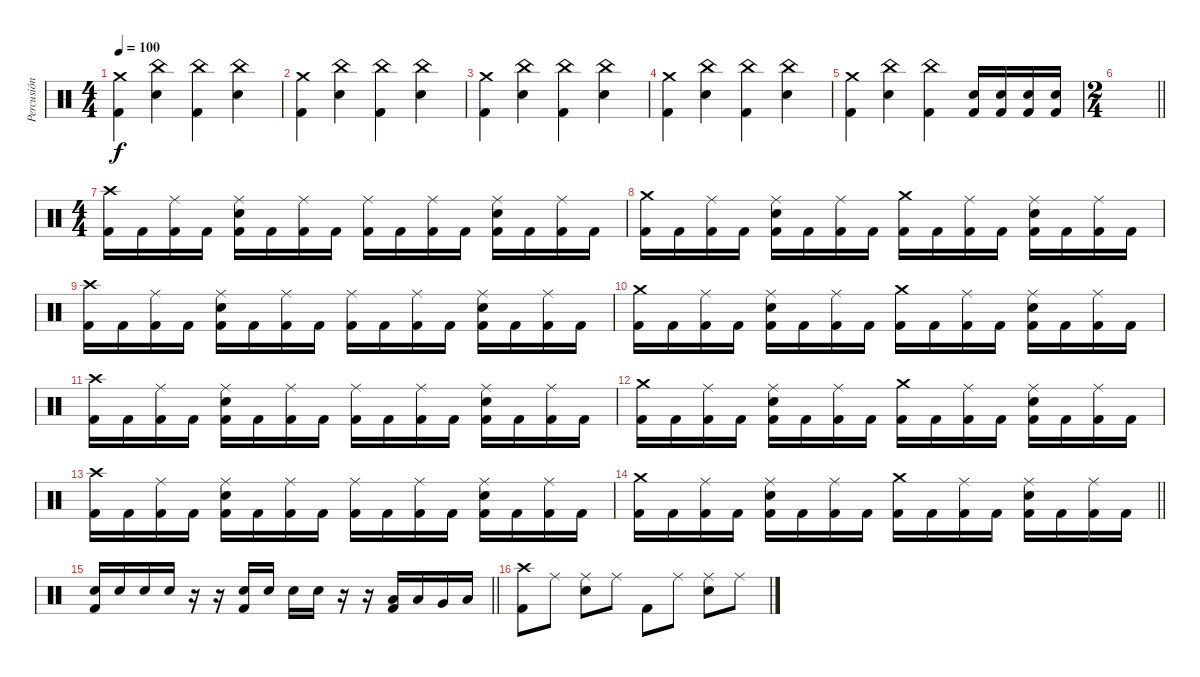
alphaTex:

\track ("Percusión" "Percusión") {instrument percussion}
\staff {score}
\articulation defaults
\ts (4 4)
\tempo 100
\clef neutral
\ks c
("Crash medium (hit)" "Kick (hit) 2").4{dy f} ("China (hit)" "Snare (hit) 2").4 ("China (hit)" "Kick (hit) 2").4 ("China (hit)" "Snare (hit) 2").4 |
("Crash medium (hit)" "Kick (hit) 2").4 ("China (hit)" "Snare (hit) 2").4 ("China (hit)" "Kick (hit) 2").4 ("China (hit)" "Snare (hit) 2").4 |
("Crash medium (hit)" "Kick (hit) 2").4 ("China (hit)" "Snare (hit) 2").4 ("China (hit)" "Kick (hit) 2").4 ("China (hit)" "Snare (hit) 2").4 |
("Crash medium (hit)" "Kick (hit) 2").4 ("China (hit)" "Snare (hit) 2").4 ("China (hit)" "Kick (hit) 2").4 ("China (hit)" "Snare (hit) 2").4 |
("Crash medium (hit)" "Kick (hit) 2").4 ("China (hit)" "Snare (hit) 2").4 ("China (hit)" "Kick (hit) 2").4 ("Snare (hit) 2" "Kick (hit) 2").16 ("Snare (hit) 2" "Kick (hit) 2").16 ("Snare (hit) 2" "Kick (hit) 2").16 ("Snare (hit) 2" "Kick (hit) 2").16 |
\ts (2 4)
\barLineRight lightlight
|
\ts (4 4)
("Crash high (hit)" "Kick (hit) 2").16 "Kick (hit) 2".16 ("Ride (middle)" "Kick (hit) 2").16 "Kick (hit) 2".16 ("Ride (middle)" "Snare (hit) 2" "Kick (hit) 2").16 "Kick (hit) 2".16 ("Ride (middle)" "Kick (hit) 2").16 "Kick (hit) 2".16 ("Ride (middle)" "Kick (hit) 2").16 "Kick (hit) 2".16 ("Ride (middle)" "Kick (hit) 2").16 "Kick (hit) 2".16 ("Ride (middle)" "Snare (hit) 2" "Kick (hit) 2").16 "Kick (hit) 2".16 ("Ride (middle)" "Kick (hit) 2").16 "Kick (hit) 2".16 |
("Crash medium (hit)" "Kick (hit) 2").16 "Kick (hit) 2".16 ("Ride (middle)" "Kick (hit) 2").16 "Kick (hit) 2".16 ("Ride (middle)" "Snare (hit) 2" "Kick (hit) 2").16 "Kick (hit) 2".16 ("Ride (middle)" "Kick (hit) 2").16 "Kick (hit) 2".16 ("Crash medium (hit)" "Kick (hit) 2").16 "Kick (hit) 2".16 ("Ride (middle)" "Kick (hit) 2").16 "Kick (hit) 2".16 ("Ride (middle)" "Snare (hit) 2" "Kick (hit) 2").16 "Kick (hit) 2".16 ("Ride (middle)" "Kick (hit) 2").16 "Kick (hit) 2".16 |
("Crash high (hit)" "Kick (hit) 2").16 "Kick (hit) 2".16 ("Ride (middle)" "Kick (hit) 2").16 "Kick (hit) 2".16 ("Ride (middle)" "Snare (hit) 2" "Kick (hit) 2").16 "Kick (hit) 2".16 ("Ride (middle)" "Kick (hit) 2").16 "Kick (hit) 2".16 ("Ride (middle)" "Kick (hit) 2").16 "Kick (hit) 2".16 ("Ride (middle)" "Kick (hit) 2").16 "Kick (hit) 2".16 ("Ride (middle)" "Snare (hit) 2" "Kick (hit) 2").16 "Kick (hit) 2".16 ("Ride (middle)" "Kick (hit) 2").16 "Kick (hit) 2".16 |
("Crash medium (hit)" "Kick (hit) 2").16 "Kick (hit) 2".16 ("Ride (middle)" "Kick (hit) 2").16 "Kick (hit) 2".16 ("Ride (middle)" "Snare (hit) 2" "Kick (hit) 2").16 "Kick (hit) 2".16 ("Ride (middle)" "Kick (hit) 2").16 "Kick (hit) 2".16 ("Crash medium (hit)" "Kick (hit) 2").16 "Kick (hit) 2".16 ("Ride (middle)" "Kick (hit) 2").16 "Kick (hit) 2".16 ("Ride (middle)" "Snare (hit) 2" "Kick (hit) 2").16 "Kick (hit) 2".16 ("Ride (middle)" "Kick (hit) 2").16 "Kick (hit) 2".16 |
("Crash high (hit)" "Kick (hit) 2").16 "Kick (hit) 2".16 ("Ride (middle)" "Kick (hit) 2").16 "Kick (hit) 2".16 ("Ride (middle)" "Snare (hit) 2" "Kick (hit) 2").16 "Kick (hit) 2".16 ("Ride (middle)" "Kick (hit) 2").16 "Kick (hit) 2".16 ("Ride (middle)" "Kick (hit) 2").16 "Kick (hit) 2".16 ("Ride (middle)" "Kick (hit) 2").16 "Kick (hit) 2".16 ("Ride (middle)" "Snare (hit) 2" "Kick (hit) 2").16 "Kick (hit) 2".16 ("Ride (middle)" "Kick (hit) 2").16 "Kick (hit) 2".16 |
("Crash medium (hit)" "Kick (hit) 2").16 "Kick (hit) 2".16 ("Ride (middle)" "Kick (hit) 2").16 "Kick (hit) 2".16 ("Ride (middle)" "Snare (hit) 2" "Kick (hit) 2").16 "Kick (hit) 2".16 ("Ride (middle)" "Kick (hit) 2").16 "Kick (hit) 2".16 ("Crash medium (hit)" "Kick (hit) 2").16 "Kick (hit) 2".16 ("Ride (middle)" "Kick (hit) 2").16 "Kick (hit) 2".16 ("Ride (middle)" "Snare (hit) 2" "Kick (hit) 2").16 "Kick (hit) 2".16 ("Ride (middle)" "Kick (hit) 2").16 "Kick (hit) 2".16 |
("Crash high (hit)" "Kick (hit) 2").16 "Kick (hit) 2".16 ("Ride (middle)" "Kick (hit) 2").16 "Kick (hit) 2".16 ("Ride (middle)" "Snare (hit) 2" "Kick (hit) 2").16 "Kick (hit) 2".16 ("Ride (middle)" "Kick (hit) 2").16 "Kick (hit) 2".16 ("Ride (middle)" "Kick (hit) 2").16 "Kick (hit) 2".16 ("Ride (middle)" "Kick (hit) 2").16 "Kick (hit) 2".16 ("Ride (middle)" "Snare (hit) 2" "Kick (hit) 2").16 "Kick (hit) 2".16 ("Ride (middle)" "Kick (hit) 2").16 "Kick (hit) 2".16 |
\barLineRight lightlight
("Crash medium (hit)" "Kick (hit) 2").16 "Kick (hit) 2".16 ("Ride (middle)" "Kick (hit) 2").16 "Kick (hit) 2".16 ("Ride (middle)" "Snare (hit) 2" "Kick (hit) 2").16 "Kick (hit) 2".16 ("Ride (middle)" "Kick (hit) 2").16 "Kick (hit) 2".16 ("Crash medium (hit)" "Kick (hit) 2").16 "Kick (hit) 2".16 ("Ride (middle)" "Kick (hit) 2").16 "Kick (hit) 2".16 ("Ride (middle)" "Snare (hit) 2" "Kick (hit) 2").16 "Kick (hit) 2".16 ("Ride (middle)" "Kick (hit) 2").16 "Kick (hit) 2".16 |
\barLineRight lightlight
("Snare (hit) 2" "Kick (hit) 2").16 "Snare (hit) 2".16 "Snare (hit) 2".16 "Snare (hit) 2".16 r.16 r.16 ("Snare (hit) 2" "Kick (hit) 2").16 "Snare (hit) 2".16 "Snare (hit) 2".16 "Snare (hit) 2".16 r.16 r.16 ("Low Tom (hit)" "Kick (hit) 2").16 "Low Tom (hit)".16 "Very Low Tom (hit)".16 "Low Floor Tom (hit)".16 |
("Crash high (hit)" "Kick (hit) 2").8 "Ride (middle)".8 ("Ride (middle)" "Snare (hit) 2").8 "Ride (middle)".8 "Kick (hit) 2".8 "Ride (middle)".8 ("Ride (middle)" "Snare (hit) 2").8 "Ride (middle)".8
